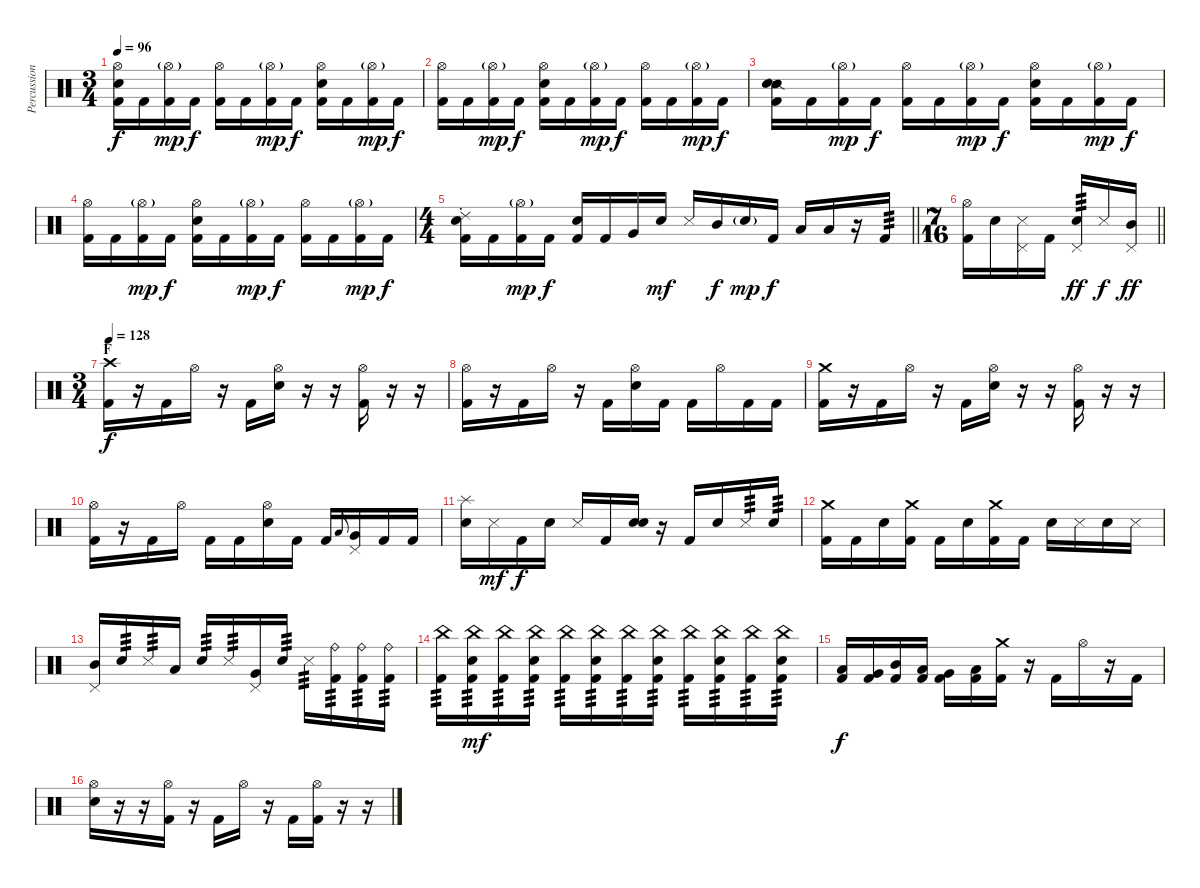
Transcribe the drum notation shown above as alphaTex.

\track ("Percussion" "Percussion") {instrument percussion}
\staff {score}
\articulation defaults
\ts (3 4)
\tempo 96
\clef neutral
\ks c
("Hi-Hat (open)" "Snare (hit) 2" "Kick (hit) 2").16{dy f} "Kick (hit) 2".16 ("Hi-Hat (open)"{g} "Kick (hit) 2").16{dy mp} "Kick (hit) 2".16{dy f} ("Hi-Hat (open)" "Kick (hit) 2").16 "Kick (hit) 2".16 ("Hi-Hat (open)"{g} "Kick (hit) 2").16{dy mp} "Kick (hit) 2".16{dy f} ("Hi-Hat (open)" "Snare (hit) 2" "Kick (hit) 2").16 "Kick (hit) 2".16 ("Hi-Hat (open)"{g} "Kick (hit) 2").16{dy mp} "Kick (hit) 2".16{dy f} |
("Hi-Hat (open)" "Kick (hit) 2").16 "Kick (hit) 2".16 ("Hi-Hat (open)"{g} "Kick (hit) 2").16{dy mp} "Kick (hit) 2".16{dy f} ("Hi-Hat (open)" "Snare (hit) 2" "Kick (hit) 2").16 "Kick (hit) 2".16 ("Hi-Hat (open)"{g} "Kick (hit) 2").16{dy mp} "Kick (hit) 2".16{dy f} ("Hi-Hat (open)" "Kick (hit) 2").16 "Kick (hit) 2".16 ("Hi-Hat (open)"{g} "Kick (hit) 2").16{dy mp} "Kick (hit) 2".16{dy f} |
("Snare (side stick) 2" "Snare (hit) 2" "Kick (hit) 2").16 "Kick (hit) 2".16 ("Hi-Hat (open)"{g} "Kick (hit) 2").16{dy mp} "Kick (hit) 2".16{dy f} ("Hi-Hat (open)" "Kick (hit) 2").16 "Kick (hit) 2".16 ("Hi-Hat (open)"{g} "Kick (hit) 2").16{dy mp} "Kick (hit) 2".16{dy f} ("Hi-Hat (open)" "Snare (hit) 2" "Kick (hit) 2").16 "Kick (hit) 2".16 ("Hi-Hat (open)"{g} "Kick (hit) 2").16{dy mp} "Kick (hit) 2".16{dy f} |
("Hi-Hat (open)" "Kick (hit) 2").16 "Kick (hit) 2".16 ("Hi-Hat (open)"{g} "Kick (hit) 2").16{dy mp} "Kick (hit) 2".16{dy f} ("Hi-Hat (open)" "Snare (hit) 2" "Kick (hit) 2").16 "Kick (hit) 2".16 ("Hi-Hat (open)"{g} "Kick (hit) 2").16{dy mp} "Kick (hit) 2".16{dy f} ("Hi-Hat (open)" "Kick (hit) 2").16 "Kick (hit) 2".16 ("Hi-Hat (open)"{g} "Kick (hit) 2").16{dy mp} "Kick (hit) 2".16{dy f} |
\ts (4 4)
\barLineRight lightlight
("Ride (choke) 2" "Snare (hit) 2" "Kick (hit) 2").16 "Kick (hit) 2".16 ("Hi-Hat (open)"{g} "Kick (hit) 2").16{dy mp} "Kick (hit) 2".16{dy f} ("Snare (hit)" "Kick (hit) 2").16 "Kick (hit) 2".16 "Very Low Tom (hit)".16 "Snare (hit) 2".16{dy mf} "Metronome (hit)".16 "Mid Tom (hit)".16{dy f} "Snare (hit) 2"{g}.16{dy mp} "Kick (hit) 2".16{dy f} "Low Tom (hit)".16 "Low Tom (hit)".16 r.16 "Kick (hit) 2".16{tp 3} |
\ts (7 16)
\barLineRight lightlight
("Hi-Hat (open)" "Kick (hit) 2").16 "Snare (hit) 2".16 ("Pedal Hi-Hat (hit)" "Metronome (hit)").16 "Kick (hit) 2".16 ("Pedal Hi-Hat (hit)" "Snare (hit) 2").16{tp 3 dy ff} "Metronome (hit)".16{dy f} ("Pedal Hi-Hat (hit)" "Mid Tom (hit)").16{dy ff} |
\ts (3 4)
\section ("" "F")
\tempo 128
("Crash high (hit)" "Kick (hit) 2").16{dy f} r.16 "Kick (hit) 2".16 "Hi-Hat (open)".16 r.16 "Kick (hit) 2".16 ("Hi-Hat (open)" "Snare (hit) 2").16 r.16 r.16 ("Hi-Hat (open)" "Kick (hit) 2").16 r.16 r.16 |
("Hi-Hat (open)" "Kick (hit) 2").16 r.16 "Kick (hit) 2".16 "Hi-Hat (open)".16 r.16 "Kick (hit) 2".16 ("Hi-Hat (open)" "Snare (hit) 2").16 "Kick (hit) 2".16 "Kick (hit) 2".16 "Hi-Hat (open)".16 "Kick (hit) 2".16 "Kick (hit) 2".16 |
("Crash medium (hit)" "Kick (hit) 2").16 r.16 "Kick (hit) 2".16 "Hi-Hat (open)".16 r.16 "Kick (hit) 2".16 ("Hi-Hat (open)" "Snare (hit) 2").16 r.16 r.16 ("Hi-Hat (open)" "Kick (hit) 2").16 r.16 r.16 |
("Hi-Hat (open)" "Kick (hit) 2").16 r.16 "Kick (hit) 2".16 "Hi-Hat (open)".16 "Kick (hit) 2".16 "Kick (hit) 2".16 ("Hi-Hat (open)" "Snare (hit) 2").16 "Kick (hit) 2".16 "Kick (hit) 2".16 "Low Tom (hit)".8{gr onbeat} ("Pedal Hi-Hat (hit)" "Very Low Tom (hit)").16 "Kick (hit) 2".16 "Kick (hit) 2".16 |
("Splash (hit)" "Snare (hit) 2").16 "Metronome (hit)".16{dy mf} "Kick (hit) 2".16{dy f} "Snare (hit) 2".16 "Metronome (hit)".16 "Kick (hit) 2".16 ("Snare (hit)" "Snare (hit) 2").16 r.16 "Kick (hit) 2".16 "Snare (hit) 2".16 "Metronome (hit)".16{tp 3} "Snare (hit) 2".16{tp 3} |
("Crash medium (hit)" "Kick (hit) 2").16 "Kick (hit) 2".16 "Snare (hit) 2".16 ("Crash medium (hit)" "Kick (hit) 2").16 "Kick (hit) 2".16 "Snare (hit) 2".16 ("Crash medium (hit)" "Kick (hit) 2").16 "Kick (hit) 2".16 "Snare (hit) 2".16 "Metronome (hit)".16 "Snare (hit) 2".16 "Metronome (hit)".16 |
("Pedal Hi-Hat (hit)" "Mid Tom (hit)").16 "Snare (hit) 2".16{tp 3} "Metronome (hit)".16{tp 3} "Low Tom (hit)".16 "Snare (hit) 2".16{tp 3} "Metronome (hit)".16{tp 3} ("Pedal Hi-Hat (hit)" "Very Low Tom (hit)").16 "Snare (hit) 2".16{tp 3} "Metronome (hit)".16{tp 3} ("Ride (bell)" "Kick (hit) 2").16{tp 3} ("Ride (bell)" "Kick (hit) 2").16{tp 3} ("Ride (bell)" "Kick (hit) 2").16{tp 3} |
("China (hit)" "Kick (hit) 2").16{tp 3} ("China (hit)" "Snare (hit) 2" "Kick (hit) 2").16{tp 3 dy mf} ("China (hit)" "Kick (hit) 2").16{tp 3} ("China (hit)" "Snare (hit) 2" "Kick (hit) 2").16{tp 3} ("China (hit)" "Kick (hit) 2").16{tp 3} ("China (hit)" "Snare (hit) 2" "Kick (hit) 2").16{tp 3} ("China (hit)" "Kick (hit) 2").16{tp 3} ("China (hit)" "Snare (hit) 2" "Kick (hit) 2").16{tp 3} ("China (hit)" "Kick (hit) 2").16{tp 3} ("China (hit)" "Snare (hit) 2" "Kick (hit) 2").16{tp 3} ("China (hit)" "Kick (hit) 2").16{tp 3} ("China (hit)" "Snare (hit) 2" "Kick (hit) 2").16{tp 3} |
("Low Tom (hit)" "Kick (hit) 2").16{dy f} ("Very Low Tom (hit)" "Kick (hit) 2").16 ("Mid Tom (hit)" "Kick (hit) 2").16 ("Low Tom (hit)" "Kick (hit) 2").16 ("Very Low Tom (hit)" "Kick (hit) 2").16 ("Low Floor Tom (hit)" "Kick (hit) 2").16 ("Crash medium (hit)" "Kick (hit) 2").16 r.16 "Kick (hit) 2".16 "Hi-Hat (open)".16 r.16 "Kick (hit) 2".16 |
("Hi-Hat (open)" "Snare (hit) 2").16 r.16 r.16 ("Hi-Hat (open)" "Kick (hit) 2").16 r.16 "Kick (hit) 2".16 "Hi-Hat (open)".16 r.16 "Kick (hit) 2".16 ("Hi-Hat (open)" "Kick (hit) 2").16 r.16 r.16
